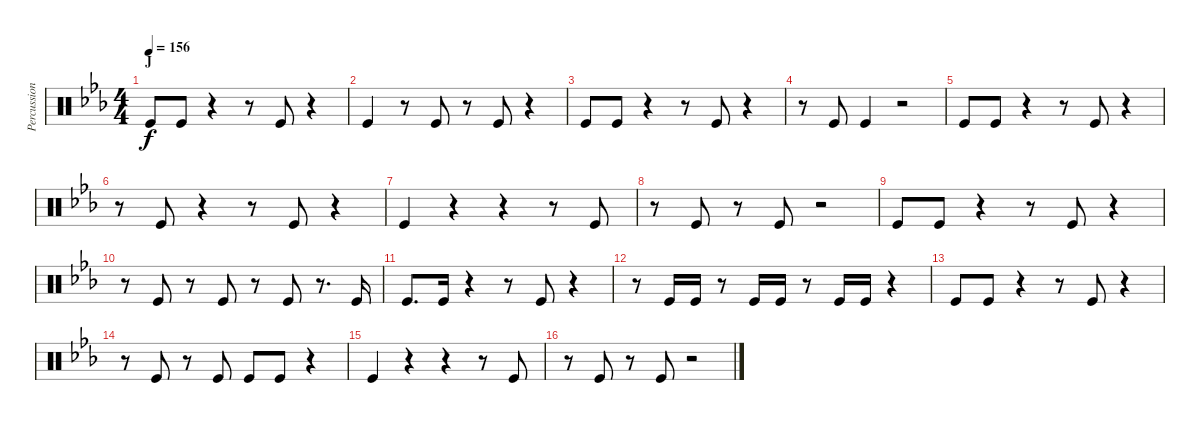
\track ("Percussion foot" "Percussion") {instrument percussion}
\staff {score}
\articulation defaults
\ts (4 4)
\section ("" "J")
\tempo 156
\clef neutral
\ks eb "Kick (hit)".8{dy f} "Kick (hit)".8
r.4 r.8 "Kick (hit)".8 r.4 |
"Kick (hit)".4 r.8 "Kick (hit)".8 r.8 "Kick (hit)".8 r.4 |
"Kick (hit)".8 "Kick (hit)".8 r.4 r.8 "Kick (hit)".8 r.4 |
r.8 "Kick (hit)".8 "Kick (hit)".4 r.2 |
"Kick (hit)".8 "Kick (hit)".8 r.4 r.8 "Kick (hit)".8 r.4 |
r.8 "Kick (hit)".8 r.4 r.8 "Kick (hit)".8 r.4 |
"Kick (hit)".4 r.4 r.4 r.8 "Kick (hit)".8 |
r.8 "Kick (hit)".8 r.8 "Kick (hit)".8 r.2 |
"Kick (hit)".8 "Kick (hit)".8 r.4 r.8 "Kick (hit)".8 r.4 |
r.8 "Kick (hit)".8 r.8 "Kick (hit)".8 r.8 "Kick (hit)".8 r.8{d} "Kick (hit)".16 |
"Kick (hit)".8{d} "Kick (hit)".16 r.4 r.8 "Kick (hit)".8 r.4 |
r.8 "Kick (hit)".16 "Kick (hit)".16 r.8 "Kick (hit)".16 "Kick (hit)".16 r.8 "Kick (hit)".16 "Kick (hit)".16 r.4 |
"Kick (hit)".8 "Kick (hit)".8 r.4 r.8 "Kick (hit)".8 r.4 |
r.8 "Kick (hit)".8 r.8 "Kick (hit)".8 "Kick (hit)".8 "Kick (hit)".8 r.4 |
"Kick (hit)".4 r.4 r.4 r.8 "Kick (hit)".8 |
r.8 "Kick (hit)".8 r.8 "Kick (hit)".8 r.2
